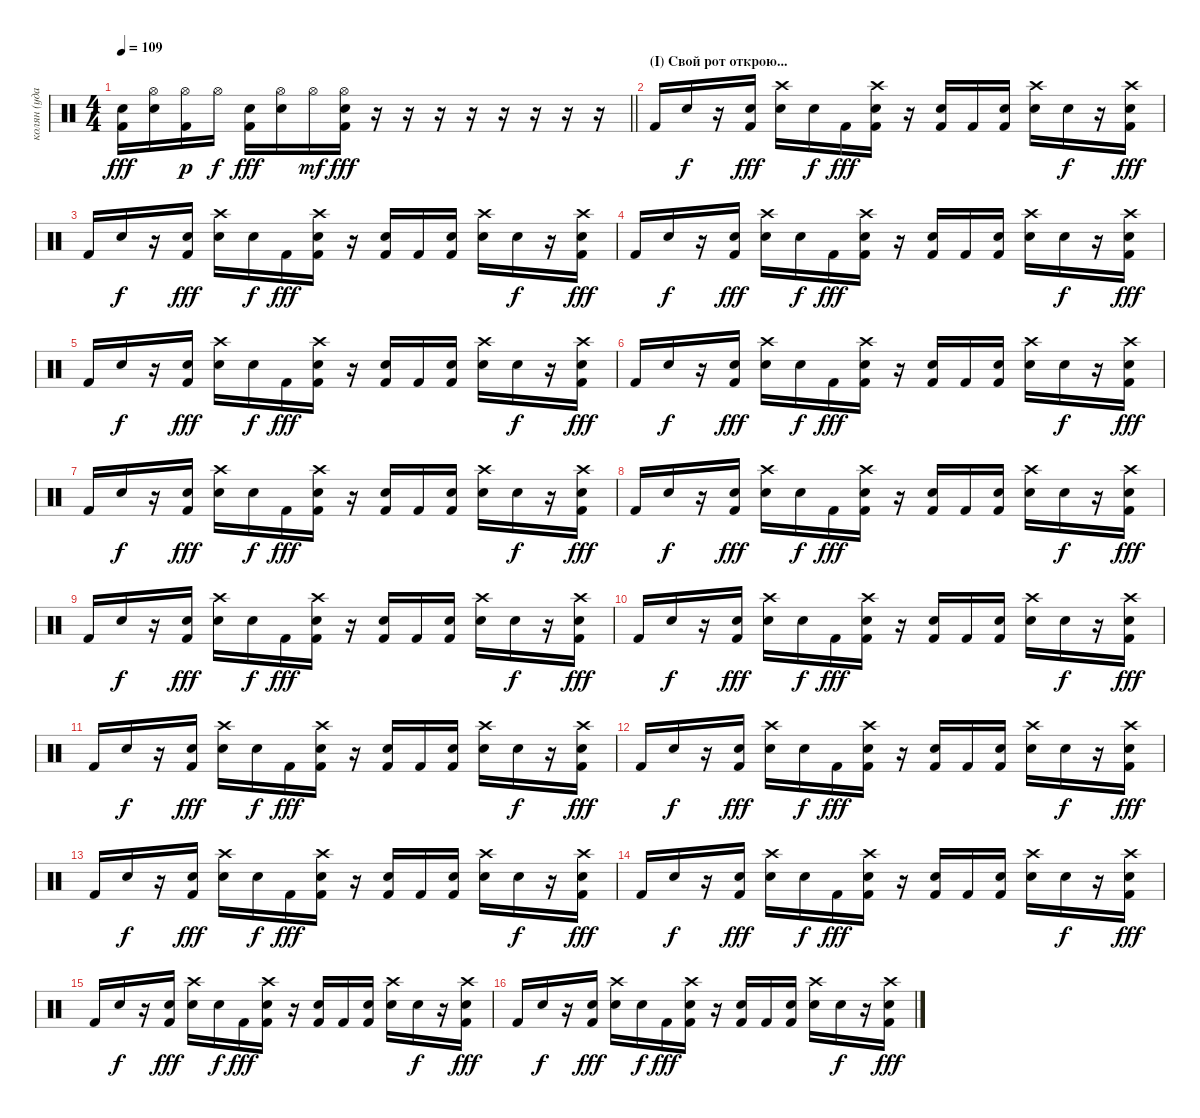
\track ("колян (ударные)" "колян (уда") {instrument percussion}
\staff
\articulation defaults
\ts (4 4)
\tempo 109
\clef neutral
\barLineRight lightlight
\ks c
("Snare (hit) 2" "Kick (hit) 2").16{dy fff} ("Hi-Hat (open)" "Snare (hit) 2").16 ("Hi-Hat (open)" "Kick (hit) 2").16{dy p} "Hi-Hat (open)".16{dy f} ("Snare (hit) 2" "Kick (hit) 2").16{dy fff} ("Hi-Hat (open)" "Snare (hit) 2").16 "Hi-Hat (open)".16{dy mf} ("Hi-Hat (open)" "Snare (hit) 2" "Kick (hit) 2").16{dy fff} r.16 r.16 r.16 r.16 r.16 r.16 r.16 r.16 |
\section ("" "(I) Свой рот открою...")
"Kick (hit) 2".16 "Snare (hit) 2".16{dy f} r.16 ("Snare (hit) 2" "Kick (hit) 2").16{dy fff} ("Crash high (hit)" "Snare (hit) 2").16 "Snare (hit) 2".16{dy f} "Kick (hit) 2".16{dy fff} ("Crash high (hit)" "Snare (hit) 2" "Kick (hit) 2").16 r.16 ("Snare (hit) 2" "Kick (hit) 2").16 "Kick (hit) 2".16 ("Snare (hit) 2" "Kick (hit) 2").16 ("Crash high (hit)" "Snare (hit) 2").16 "Snare (hit) 2".16{dy f} r.16 ("Crash high (hit)" "Snare (hit) 2" "Kick (hit) 2").16{dy fff} |
"Kick (hit) 2".16 "Snare (hit) 2".16{dy f} r.16 ("Snare (hit) 2" "Kick (hit) 2").16{dy fff} ("Crash high (hit)" "Snare (hit) 2").16 "Snare (hit) 2".16{dy f} "Kick (hit) 2".16{dy fff} ("Crash high (hit)" "Snare (hit) 2" "Kick (hit) 2").16 r.16 ("Snare (hit) 2" "Kick (hit) 2").16 "Kick (hit) 2".16 ("Snare (hit) 2" "Kick (hit) 2").16 ("Crash high (hit)" "Snare (hit) 2").16 "Snare (hit) 2".16{dy f} r.16 ("Crash high (hit)" "Snare (hit) 2" "Kick (hit) 2").16{dy fff} |
"Kick (hit) 2".16 "Snare (hit) 2".16{dy f} r.16 ("Snare (hit) 2" "Kick (hit) 2").16{dy fff} ("Crash high (hit)" "Snare (hit) 2").16 "Snare (hit) 2".16{dy f} "Kick (hit) 2".16{dy fff} ("Crash high (hit)" "Snare (hit) 2" "Kick (hit) 2").16 r.16 ("Snare (hit) 2" "Kick (hit) 2").16 "Kick (hit) 2".16 ("Snare (hit) 2" "Kick (hit) 2").16 ("Crash high (hit)" "Snare (hit) 2").16 "Snare (hit) 2".16{dy f} r.16 ("Crash high (hit)" "Snare (hit) 2" "Kick (hit) 2").16{dy fff} |
"Kick (hit) 2".16 "Snare (hit) 2".16{dy f} r.16 ("Snare (hit) 2" "Kick (hit) 2").16{dy fff} ("Crash high (hit)" "Snare (hit) 2").16 "Snare (hit) 2".16{dy f} "Kick (hit) 2".16{dy fff} ("Crash high (hit)" "Snare (hit) 2" "Kick (hit) 2").16 r.16 ("Snare (hit) 2" "Kick (hit) 2").16 "Kick (hit) 2".16 ("Snare (hit) 2" "Kick (hit) 2").16 ("Crash high (hit)" "Snare (hit) 2").16 "Snare (hit) 2".16{dy f} r.16 ("Crash high (hit)" "Snare (hit) 2" "Kick (hit) 2").16{dy fff} |
"Kick (hit) 2".16 "Snare (hit) 2".16{dy f} r.16 ("Snare (hit) 2" "Kick (hit) 2").16{dy fff} ("Crash high (hit)" "Snare (hit) 2").16 "Snare (hit) 2".16{dy f} "Kick (hit) 2".16{dy fff} ("Crash high (hit)" "Snare (hit) 2" "Kick (hit) 2").16 r.16 ("Snare (hit) 2" "Kick (hit) 2").16 "Kick (hit) 2".16 ("Snare (hit) 2" "Kick (hit) 2").16 ("Crash high (hit)" "Snare (hit) 2").16 "Snare (hit) 2".16{dy f} r.16 ("Crash high (hit)" "Snare (hit) 2" "Kick (hit) 2").16{dy fff} |
"Kick (hit) 2".16 "Snare (hit) 2".16{dy f} r.16 ("Snare (hit) 2" "Kick (hit) 2").16{dy fff} ("Crash high (hit)" "Snare (hit) 2").16 "Snare (hit) 2".16{dy f} "Kick (hit) 2".16{dy fff} ("Crash high (hit)" "Snare (hit) 2" "Kick (hit) 2").16 r.16 ("Snare (hit) 2" "Kick (hit) 2").16 "Kick (hit) 2".16 ("Snare (hit) 2" "Kick (hit) 2").16 ("Crash high (hit)" "Snare (hit) 2").16 "Snare (hit) 2".16{dy f} r.16 ("Crash high (hit)" "Snare (hit) 2" "Kick (hit) 2").16{dy fff} |
"Kick (hit) 2".16 "Snare (hit) 2".16{dy f} r.16 ("Snare (hit) 2" "Kick (hit) 2").16{dy fff} ("Crash high (hit)" "Snare (hit) 2").16 "Snare (hit) 2".16{dy f} "Kick (hit) 2".16{dy fff} ("Crash high (hit)" "Snare (hit) 2" "Kick (hit) 2").16 r.16 ("Snare (hit) 2" "Kick (hit) 2").16 "Kick (hit) 2".16 ("Snare (hit) 2" "Kick (hit) 2").16 ("Crash high (hit)" "Snare (hit) 2").16 "Snare (hit) 2".16{dy f} r.16 ("Crash high (hit)" "Snare (hit) 2" "Kick (hit) 2").16{dy fff} |
"Kick (hit) 2".16 "Snare (hit) 2".16{dy f} r.16 ("Snare (hit) 2" "Kick (hit) 2").16{dy fff} ("Crash high (hit)" "Snare (hit) 2").16 "Snare (hit) 2".16{dy f} "Kick (hit) 2".16{dy fff} ("Crash high (hit)" "Snare (hit) 2" "Kick (hit) 2").16 r.16 ("Snare (hit) 2" "Kick (hit) 2").16 "Kick (hit) 2".16 ("Snare (hit) 2" "Kick (hit) 2").16 ("Crash high (hit)" "Snare (hit) 2").16 "Snare (hit) 2".16{dy f} r.16 ("Crash high (hit)" "Snare (hit) 2" "Kick (hit) 2").16{dy fff} |
"Kick (hit) 2".16 "Snare (hit) 2".16{dy f} r.16 ("Snare (hit) 2" "Kick (hit) 2").16{dy fff} ("Crash high (hit)" "Snare (hit) 2").16 "Snare (hit) 2".16{dy f} "Kick (hit) 2".16{dy fff} ("Crash high (hit)" "Snare (hit) 2" "Kick (hit) 2").16 r.16 ("Snare (hit) 2" "Kick (hit) 2").16 "Kick (hit) 2".16 ("Snare (hit) 2" "Kick (hit) 2").16 ("Crash high (hit)" "Snare (hit) 2").16 "Snare (hit) 2".16{dy f} r.16 ("Crash high (hit)" "Snare (hit) 2" "Kick (hit) 2").16{dy fff} |
"Kick (hit) 2".16 "Snare (hit) 2".16{dy f} r.16 ("Snare (hit) 2" "Kick (hit) 2").16{dy fff} ("Crash high (hit)" "Snare (hit) 2").16 "Snare (hit) 2".16{dy f} "Kick (hit) 2".16{dy fff} ("Crash high (hit)" "Snare (hit) 2" "Kick (hit) 2").16 r.16 ("Snare (hit) 2" "Kick (hit) 2").16 "Kick (hit) 2".16 ("Snare (hit) 2" "Kick (hit) 2").16 ("Crash high (hit)" "Snare (hit) 2").16 "Snare (hit) 2".16{dy f} r.16 ("Crash high (hit)" "Snare (hit) 2" "Kick (hit) 2").16{dy fff} |
"Kick (hit) 2".16 "Snare (hit) 2".16{dy f} r.16 ("Snare (hit) 2" "Kick (hit) 2").16{dy fff} ("Crash high (hit)" "Snare (hit) 2").16 "Snare (hit) 2".16{dy f} "Kick (hit) 2".16{dy fff} ("Crash high (hit)" "Snare (hit) 2" "Kick (hit) 2").16 r.16 ("Snare (hit) 2" "Kick (hit) 2").16 "Kick (hit) 2".16 ("Snare (hit) 2" "Kick (hit) 2").16 ("Crash high (hit)" "Snare (hit) 2").16 "Snare (hit) 2".16{dy f} r.16 ("Crash high (hit)" "Snare (hit) 2" "Kick (hit) 2").16{dy fff} |
"Kick (hit) 2".16 "Snare (hit) 2".16{dy f} r.16 ("Snare (hit) 2" "Kick (hit) 2").16{dy fff} ("Crash high (hit)" "Snare (hit) 2").16 "Snare (hit) 2".16{dy f} "Kick (hit) 2".16{dy fff} ("Crash high (hit)" "Snare (hit) 2" "Kick (hit) 2").16 r.16 ("Snare (hit) 2" "Kick (hit) 2").16 "Kick (hit) 2".16 ("Snare (hit) 2" "Kick (hit) 2").16 ("Crash high (hit)" "Snare (hit) 2").16 "Snare (hit) 2".16{dy f} r.16 ("Crash high (hit)" "Snare (hit) 2" "Kick (hit) 2").16{dy fff} |
"Kick (hit) 2".16 "Snare (hit) 2".16{dy f} r.16 ("Snare (hit) 2" "Kick (hit) 2").16{dy fff} ("Crash high (hit)" "Snare (hit) 2").16 "Snare (hit) 2".16{dy f} "Kick (hit) 2".16{dy fff} ("Crash high (hit)" "Snare (hit) 2" "Kick (hit) 2").16 r.16 ("Snare (hit) 2" "Kick (hit) 2").16 "Kick (hit) 2".16 ("Snare (hit) 2" "Kick (hit) 2").16 ("Crash high (hit)" "Snare (hit) 2").16 "Snare (hit) 2".16{dy f} r.16 ("Crash high (hit)" "Snare (hit) 2" "Kick (hit) 2").16{dy fff} |
"Kick (hit) 2".16 "Snare (hit) 2".16{dy f} r.16 ("Snare (hit) 2" "Kick (hit) 2").16{dy fff} ("Crash high (hit)" "Snare (hit) 2").16 "Snare (hit) 2".16{dy f} "Kick (hit) 2".16{dy fff} ("Crash high (hit)" "Snare (hit) 2" "Kick (hit) 2").16 r.16 ("Snare (hit) 2" "Kick (hit) 2").16 "Kick (hit) 2".16 ("Snare (hit) 2" "Kick (hit) 2").16 ("Crash high (hit)" "Snare (hit) 2").16 "Snare (hit) 2".16{dy f} r.16 ("Crash high (hit)" "Snare (hit) 2" "Kick (hit) 2").16{dy fff} |
"Kick (hit) 2".16 "Snare (hit) 2".16{dy f} r.16 ("Snare (hit) 2" "Kick (hit) 2").16{dy fff} ("Crash high (hit)" "Snare (hit) 2").16 "Snare (hit) 2".16{dy f} "Kick (hit) 2".16{dy fff} ("Crash high (hit)" "Snare (hit) 2" "Kick (hit) 2").16 r.16 ("Snare (hit) 2" "Kick (hit) 2").16 "Kick (hit) 2".16 ("Snare (hit) 2" "Kick (hit) 2").16 ("Crash high (hit)" "Snare (hit) 2").16 "Snare (hit) 2".16{dy f} r.16 ("Crash high (hit)" "Snare (hit) 2" "Kick (hit) 2").16{dy fff}
